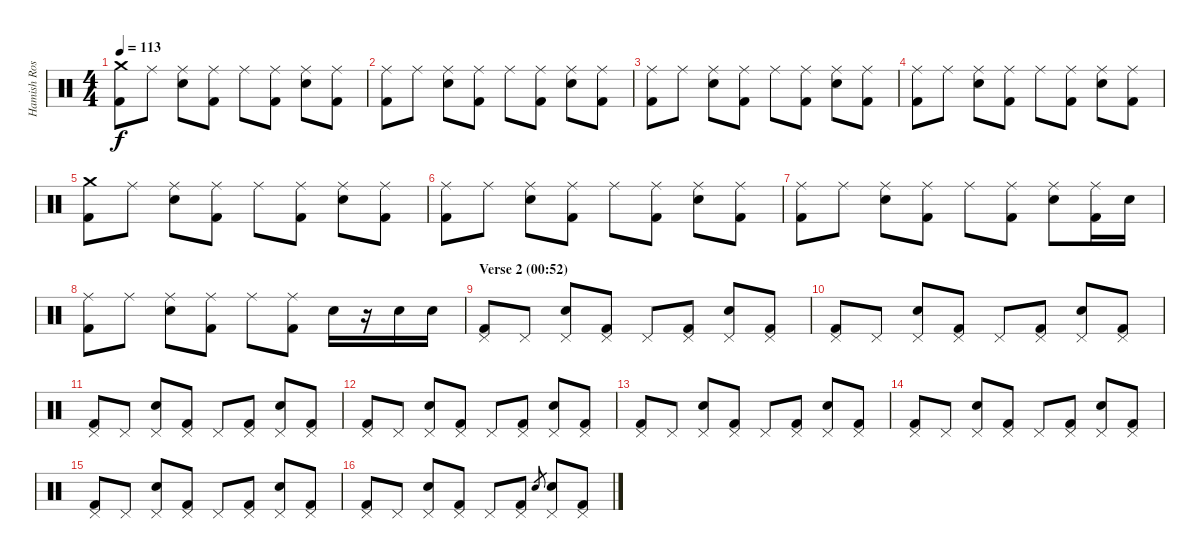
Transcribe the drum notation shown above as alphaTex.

\track ("Hamish Rosser" "Hamish Ros") {instrument percussion}
\staff {score}
\articulation defaults
\ts (4 4)
\tempo 113
\clef neutral
\ks c
("Crash medium (hit)" "Kick (hit) 2").8{dy f} "Ride (middle)".8 ("Ride (middle)" "Electric Snare (hit)").8 ("Ride (middle)" "Kick (hit) 2").8 "Ride (middle)".8 ("Ride (middle)" "Kick (hit) 2").8 ("Ride (middle)" "Electric Snare (hit)").8 ("Ride (middle)" "Kick (hit) 2").8 |
("Ride (middle)" "Kick (hit) 2").8 "Ride (middle)".8 ("Ride (middle)" "Electric Snare (hit)").8 ("Ride (middle)" "Kick (hit) 2").8 "Ride (middle)".8 ("Ride (middle)" "Kick (hit) 2").8 ("Ride (middle)" "Electric Snare (hit)").8 ("Ride (middle)" "Kick (hit) 2").8 |
("Ride (middle)" "Kick (hit) 2").8 "Ride (middle)".8 ("Ride (middle)" "Electric Snare (hit)").8 ("Ride (middle)" "Kick (hit) 2").8 "Ride (middle)".8 ("Ride (middle)" "Kick (hit) 2").8 ("Ride (middle)" "Electric Snare (hit)").8 ("Ride (middle)" "Kick (hit) 2").8 |
("Ride (middle)" "Kick (hit) 2").8 "Ride (middle)".8 ("Ride (middle)" "Electric Snare (hit)").8 ("Ride (middle)" "Kick (hit) 2").8 "Ride (middle)".8 ("Ride (middle)" "Kick (hit) 2").8 ("Ride (middle)" "Electric Snare (hit)").8 ("Ride (middle)" "Kick (hit) 2").8 |
("Crash medium (hit)" "Kick (hit) 2").8 "Ride (middle)".8 ("Ride (middle)" "Electric Snare (hit)").8 ("Ride (middle)" "Kick (hit) 2").8 "Ride (middle)".8 ("Ride (middle)" "Kick (hit) 2").8 ("Ride (middle)" "Electric Snare (hit)").8 ("Ride (middle)" "Kick (hit) 2").8 |
("Ride (middle)" "Kick (hit) 2").8 "Ride (middle)".8 ("Ride (middle)" "Electric Snare (hit)").8 ("Ride (middle)" "Kick (hit) 2").8 "Ride (middle)".8 ("Ride (middle)" "Kick (hit) 2").8 ("Ride (middle)" "Electric Snare (hit)").8 ("Ride (middle)" "Kick (hit) 2").8 |
("Ride (middle)" "Kick (hit) 2").8 "Ride (middle)".8 ("Ride (middle)" "Electric Snare (hit)").8 ("Ride (middle)" "Kick (hit) 2").8 "Ride (middle)".8 ("Ride (middle)" "Kick (hit) 2").8 ("Ride (middle)" "Electric Snare (hit)").8 ("Ride (middle)" "Kick (hit) 2").16 "Electric Snare (hit)".16 |
("Ride (middle)" "Kick (hit) 2").8 "Ride (middle)".8 ("Ride (middle)" "Electric Snare (hit)").8 ("Ride (middle)" "Kick (hit) 2").8 "Ride (middle)".8 ("Ride (middle)" "Kick (hit) 2").8 "Electric Snare (hit)".16 r.16 "Electric Snare (hit)".16 "Electric Snare (hit)".16 |
\section ("" "Verse 2 (00:52)")
("Pedal Hi-Hat (hit)" "Kick (hit) 2").8 "Pedal Hi-Hat (hit)".8 ("Pedal Hi-Hat (hit)" "Electric Snare (hit)").8 ("Pedal Hi-Hat (hit)" "Kick (hit) 2").8 "Pedal Hi-Hat (hit)".8 ("Pedal Hi-Hat (hit)" "Kick (hit) 2").8 ("Pedal Hi-Hat (hit)" "Electric Snare (hit)").8 ("Pedal Hi-Hat (hit)" "Kick (hit) 2").8 |
("Pedal Hi-Hat (hit)" "Kick (hit) 2").8 "Pedal Hi-Hat (hit)".8 ("Pedal Hi-Hat (hit)" "Electric Snare (hit)").8 ("Pedal Hi-Hat (hit)" "Kick (hit) 2").8 "Pedal Hi-Hat (hit)".8 ("Pedal Hi-Hat (hit)" "Kick (hit) 2").8 ("Pedal Hi-Hat (hit)" "Electric Snare (hit)").8 ("Pedal Hi-Hat (hit)" "Kick (hit) 2").8 |
("Pedal Hi-Hat (hit)" "Kick (hit) 2").8 "Pedal Hi-Hat (hit)".8 ("Pedal Hi-Hat (hit)" "Electric Snare (hit)").8 ("Pedal Hi-Hat (hit)" "Kick (hit) 2").8 "Pedal Hi-Hat (hit)".8 ("Pedal Hi-Hat (hit)" "Kick (hit) 2").8 ("Pedal Hi-Hat (hit)" "Electric Snare (hit)").8 ("Pedal Hi-Hat (hit)" "Kick (hit) 2").8 |
("Pedal Hi-Hat (hit)" "Kick (hit) 2").8 "Pedal Hi-Hat (hit)".8 ("Pedal Hi-Hat (hit)" "Electric Snare (hit)").8 ("Pedal Hi-Hat (hit)" "Kick (hit) 2").8 "Pedal Hi-Hat (hit)".8 ("Pedal Hi-Hat (hit)" "Kick (hit) 2").8 ("Pedal Hi-Hat (hit)" "Electric Snare (hit)").8 ("Pedal Hi-Hat (hit)" "Kick (hit) 2").8 |
("Pedal Hi-Hat (hit)" "Kick (hit) 2").8 "Pedal Hi-Hat (hit)".8 ("Pedal Hi-Hat (hit)" "Electric Snare (hit)").8 ("Pedal Hi-Hat (hit)" "Kick (hit) 2").8 "Pedal Hi-Hat (hit)".8 ("Pedal Hi-Hat (hit)" "Kick (hit) 2").8 ("Pedal Hi-Hat (hit)" "Electric Snare (hit)").8 ("Pedal Hi-Hat (hit)" "Kick (hit) 2").8 |
("Pedal Hi-Hat (hit)" "Kick (hit) 2").8 "Pedal Hi-Hat (hit)".8 ("Pedal Hi-Hat (hit)" "Electric Snare (hit)").8 ("Pedal Hi-Hat (hit)" "Kick (hit) 2").8 "Pedal Hi-Hat (hit)".8 ("Pedal Hi-Hat (hit)" "Kick (hit) 2").8 ("Pedal Hi-Hat (hit)" "Electric Snare (hit)").8 ("Pedal Hi-Hat (hit)" "Kick (hit) 2").8 |
("Pedal Hi-Hat (hit)" "Kick (hit) 2").8 "Pedal Hi-Hat (hit)".8 ("Pedal Hi-Hat (hit)" "Electric Snare (hit)").8 ("Pedal Hi-Hat (hit)" "Kick (hit) 2").8 "Pedal Hi-Hat (hit)".8 ("Pedal Hi-Hat (hit)" "Kick (hit) 2").8 ("Pedal Hi-Hat (hit)" "Electric Snare (hit)").8 ("Pedal Hi-Hat (hit)" "Kick (hit) 2").8 |
("Pedal Hi-Hat (hit)" "Kick (hit) 2").8 "Pedal Hi-Hat (hit)".8 ("Pedal Hi-Hat (hit)" "Electric Snare (hit)").8 ("Pedal Hi-Hat (hit)" "Kick (hit) 2").8 "Pedal Hi-Hat (hit)".8 ("Pedal Hi-Hat (hit)" "Kick (hit) 2").8 "Electric Snare (hit)".8{gr} ("Pedal Hi-Hat (hit)" "Electric Snare (hit)").8 ("Pedal Hi-Hat (hit)" "Kick (hit) 2").8
